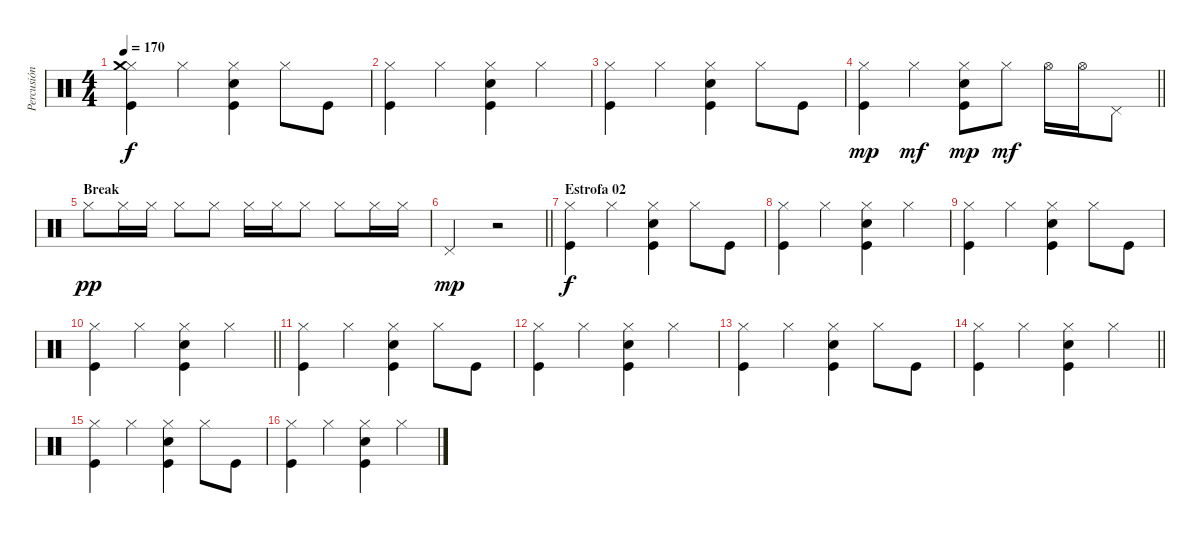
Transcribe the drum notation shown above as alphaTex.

\track ("Percusión" "Percusión") {instrument percussion}
\staff {score}
\articulation defaults
\ts (4 4)
\tempo 170
\clef neutral
\ks c
("Hi-Hat (closed)" "Crash medium (hit)" "Kick (hit)").4{dy f} "Hi-Hat (closed)".4 ("Hi-Hat (closed)" "Snare (hit) 2" "Kick (hit)").4 "Hi-Hat (closed)".8 "Kick (hit)".8 |
("Hi-Hat (closed)" "Kick (hit)").4 "Hi-Hat (closed)".4 ("Hi-Hat (closed)" "Snare (hit) 2" "Kick (hit)").4 "Hi-Hat (closed)".4 |
("Hi-Hat (closed)" "Kick (hit)").4 "Hi-Hat (closed)".4 ("Hi-Hat (closed)" "Snare (hit) 2" "Kick (hit)").4 "Hi-Hat (closed)".8 "Kick (hit)".8 |
\barLineRight lightlight
("Hi-Hat (closed)" "Kick (hit)").4{dy mp} "Hi-Hat (closed)".4{dy mf} ("Hi-Hat (closed)" "Snare (hit) 2" "Kick (hit)").8{dy mp} "Hi-Hat (closed)".8{dy mf} "Hi-Hat (open)".16 "Hi-Hat (open)".16 "Pedal Hi-Hat (hit)".8 |
\section ("" "Break")
"Hi-Hat (closed)".8{dy pp} "Hi-Hat (closed)".16 "Hi-Hat (closed)".16 "Hi-Hat (closed)".8 "Hi-Hat (closed)".8 "Hi-Hat (closed)".16 "Hi-Hat (closed)".16 "Hi-Hat (closed)".8 "Hi-Hat (closed)".8 "Hi-Hat (closed)".16 "Hi-Hat (closed)".16 |
\barLineRight lightlight "Pedal Hi-Hat (hit)".2{dy mp}
r.2 |
\section ("" "Estrofa 02")
("Hi-Hat (closed)" "Kick (hit)").4{dy f} "Hi-Hat (closed)".4 ("Hi-Hat (closed)" "Snare (hit) 2" "Kick (hit)").4 "Hi-Hat (closed)".8 "Kick (hit)".8 |
("Hi-Hat (closed)" "Kick (hit)").4 "Hi-Hat (closed)".4 ("Hi-Hat (closed)" "Snare (hit) 2" "Kick (hit)").4 "Hi-Hat (closed)".4 |
("Hi-Hat (closed)" "Kick (hit)").4 "Hi-Hat (closed)".4 ("Hi-Hat (closed)" "Snare (hit) 2" "Kick (hit)").4 "Hi-Hat (closed)".8 "Kick (hit)".8 |
\barLineRight lightlight
("Hi-Hat (closed)" "Kick (hit)").4 "Hi-Hat (closed)".4 ("Hi-Hat (closed)" "Snare (hit) 2" "Kick (hit)").4 "Hi-Hat (closed)".4 |
("Hi-Hat (closed)" "Kick (hit)").4 "Hi-Hat (closed)".4 ("Hi-Hat (closed)" "Snare (hit) 2" "Kick (hit)").4 "Hi-Hat (closed)".8 "Kick (hit)".8 |
("Hi-Hat (closed)" "Kick (hit)").4 "Hi-Hat (closed)".4 ("Hi-Hat (closed)" "Snare (hit) 2" "Kick (hit)").4 "Hi-Hat (closed)".4 |
("Hi-Hat (closed)" "Kick (hit)").4 "Hi-Hat (closed)".4 ("Hi-Hat (closed)" "Snare (hit) 2" "Kick (hit)").4 "Hi-Hat (closed)".8 "Kick (hit)".8 |
\barLineRight lightlight
("Hi-Hat (closed)" "Kick (hit)").4 "Hi-Hat (closed)".4 ("Hi-Hat (closed)" "Snare (hit) 2" "Kick (hit)").4 "Hi-Hat (closed)".4 |
("Hi-Hat (closed)" "Kick (hit)").4 "Hi-Hat (closed)".4 ("Hi-Hat (closed)" "Snare (hit) 2" "Kick (hit)").4 "Hi-Hat (closed)".8 "Kick (hit)".8 |
("Hi-Hat (closed)" "Kick (hit)").4 "Hi-Hat (closed)".4 ("Hi-Hat (closed)" "Snare (hit) 2" "Kick (hit)").4 "Hi-Hat (closed)".4
